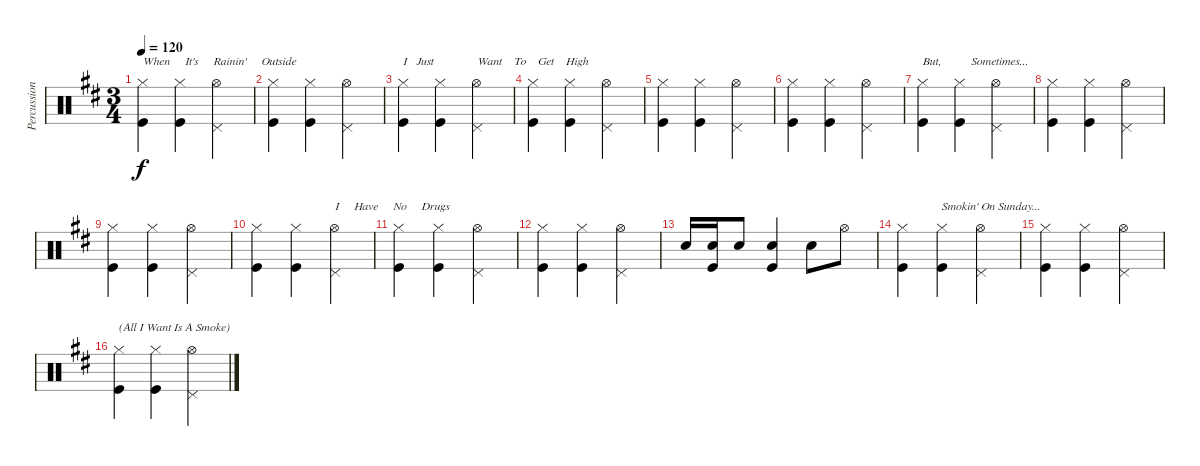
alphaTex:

\track ("Percussion" "Percussion") {instrument percussion}
\staff {score}
\articulation defaults
\ts (3 4)
\tempo 120
\clef neutral
\ks bminor
("Hi-Hat (closed)" "Kick (hit)").4{txt "When     It's     Rainin'     Outside" dy f} ("Hi-Hat (closed)" "Kick (hit)").4 ("Pedal Hi-Hat (hit)" "Hi-Hat (open)").4 |
("Hi-Hat (closed)" "Kick (hit)").4 ("Hi-Hat (closed)" "Kick (hit)").4 ("Pedal Hi-Hat (hit)" "Hi-Hat (open)").4 |
("Hi-Hat (closed)" "Kick (hit)").4{txt "I   Just"} ("Hi-Hat (closed)" "Kick (hit)").4 ("Pedal Hi-Hat (hit)" "Hi-Hat (open)").4{txt "Want    To    Get    High"} |
("Hi-Hat (closed)" "Kick (hit)").4 ("Hi-Hat (closed)" "Kick (hit)").4 ("Pedal Hi-Hat (hit)" "Hi-Hat (open)").4 |
("Hi-Hat (closed)" "Kick (hit)").4 ("Hi-Hat (closed)" "Kick (hit)").4 ("Pedal Hi-Hat (hit)" "Hi-Hat (open)").4 |
("Hi-Hat (closed)" "Kick (hit)").4 ("Hi-Hat (closed)" "Kick (hit)").4 ("Pedal Hi-Hat (hit)" "Hi-Hat (open)").4 |
("Hi-Hat (closed)" "Kick (hit)").4{txt "But,          Sometimes..."} ("Hi-Hat (closed)" "Kick (hit)").4 ("Pedal Hi-Hat (hit)" "Hi-Hat (open)").4 |
("Hi-Hat (closed)" "Kick (hit)").4 ("Hi-Hat (closed)" "Kick (hit)").4 ("Pedal Hi-Hat (hit)" "Hi-Hat (open)").4 |
("Hi-Hat (closed)" "Kick (hit)").4 ("Hi-Hat (closed)" "Kick (hit)").4 ("Pedal Hi-Hat (hit)" "Hi-Hat (open)").4 |
("Hi-Hat (closed)" "Kick (hit)").4 ("Hi-Hat (closed)" "Kick (hit)").4 ("Pedal Hi-Hat (hit)" "Hi-Hat (open)").4{txt "I     Have     No     Drugs"} |
("Hi-Hat (closed)" "Kick (hit)").4 ("Hi-Hat (closed)" "Kick (hit)").4 ("Pedal Hi-Hat (hit)" "Hi-Hat (open)").4 |
("Hi-Hat (closed)" "Kick (hit)").4 ("Hi-Hat (closed)" "Kick (hit)").4 ("Pedal Hi-Hat (hit)" "Hi-Hat (open)").4 |
"Snare (hit) 2".16 ("Snare (hit) 2" "Kick (hit)").16 "Snare (hit) 2".8 ("Snare (hit) 2" "Kick (hit)").4 "Snare (hit) 2".8 "Hi-Hat (open)".8 |
("Hi-Hat (closed)" "Kick (hit)").4 ("Hi-Hat (closed)" "Kick (hit)").4{txt "Smokin' On Sunday..."} ("Pedal Hi-Hat (hit)" "Hi-Hat (open)").4 |
("Hi-Hat (closed)" "Kick (hit)").4 ("Hi-Hat (closed)" "Kick (hit)").4 ("Pedal Hi-Hat (hit)" "Hi-Hat (open)").4 |
("Hi-Hat (closed)" "Kick (hit)").4{txt "(All I Want Is A Smoke)"} ("Hi-Hat (closed)" "Kick (hit)").4 ("Pedal Hi-Hat (hit)" "Hi-Hat (open)").4
